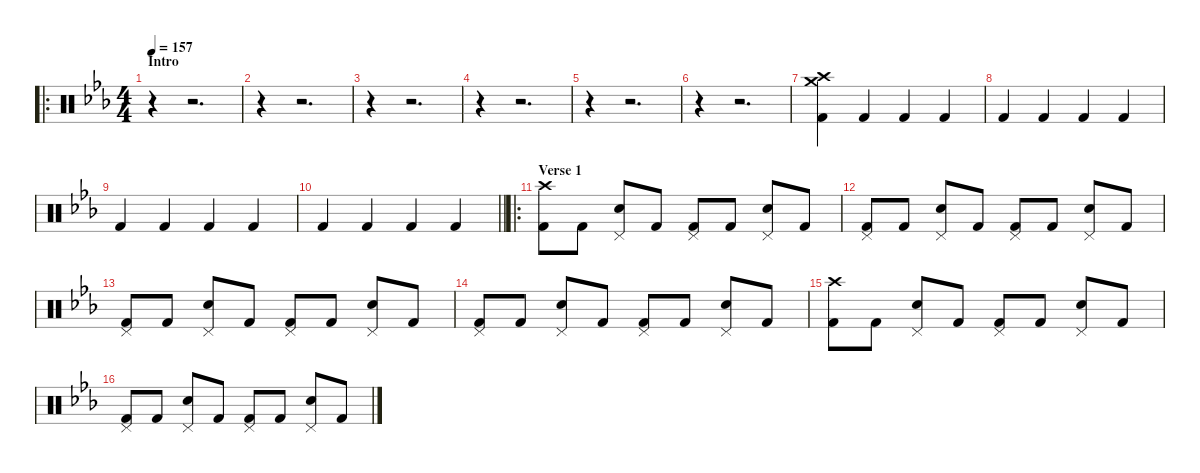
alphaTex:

\defaultSystemsLayout 4
\hideDynamics
\bracketExtendMode nobrackets
\singleTrackTrackNamePolicy hidden
\multiTrackTrackNamePolicy hidden
\firstSystemTrackNameMode fullname
\otherSystemsTrackNameOrientation horizontal
\track ("Drums" "drm.") {instrument percussion}
\staff {score}
\articulation defaults
\ro
\ts (4 4)
\beaming (8 2 2 2 2)
\section ("" "Intro")
\tempo 157
\clef neutral
\ks cminor
r.4{dy f beam Down} r.2{d beam Down} |
r.4{beam Down} r.2{d beam Down} |
r.4{beam Down} r.2{d beam Down} |
r.4{beam Down} r.2{d beam Down} |
r.4{beam Down} r.2{d beam Down} |
r.4{beam Down} r.2{d beam Down} |
("Crash high (hit)"{acc forcenatural} "Crash medium (hit)"{acc forcenatural} "Kick (hit) 2"{acc forcenatural}).4{beam Down} "Kick (hit) 2"{acc forcenatural}.4{beam Up} "Kick (hit) 2"{acc forcenatural}.4{beam Up} "Kick (hit) 2"{acc forcenatural}.4{beam Up} |
"Kick (hit) 2"{acc forcenatural}.4{beam Up} "Kick (hit) 2"{acc forcenatural}.4{beam Up} "Kick (hit) 2"{acc forcenatural}.4{beam Up} "Kick (hit) 2"{acc forcenatural}.4{beam Up} |
"Kick (hit) 2"{acc forcenatural}.4{beam Up} "Kick (hit) 2"{acc forcenatural}.4{beam Up} "Kick (hit) 2"{acc forcenatural}.4{beam Up} "Kick (hit) 2"{acc forcenatural}.4{beam Up} |
\barLineRight lightlight "Kick (hit) 2"{acc forcenatural}.4{beam Up} "Kick (hit) 2"{acc forcenatural}.4{beam Up} "Kick (hit) 2"{acc forcenatural}.4{beam Up} "Kick (hit) 2"{acc forcenatural}.4{beam Up}
|
\ro
\section ("" "Verse 1")
("Crash high (hit)"{acc forcenatural} "Kick (hit) 2"{acc forcenatural}).8{beam Down} "Kick (hit) 2"{acc forcenatural}.8{beam Down} ("Pedal Hi-Hat (hit)"{acc forcenatural} "Snare (hit) 2"{acc forcenatural}).8{beam Up} "Kick (hit) 2"{acc forcenatural}.8{beam Up} ("Pedal Hi-Hat (hit)"{acc forcenatural} "Kick (hit) 2"{acc forcenatural}).8{beam Up} "Kick (hit) 2"{acc forcenatural}.8{beam Up} ("Pedal Hi-Hat (hit)"{acc forcenatural} "Snare (hit) 2"{acc forcenatural}).8{beam Up} "Kick (hit) 2"{acc forcenatural}.8{beam Up} |
("Pedal Hi-Hat (hit)"{acc forcenatural} "Kick (hit) 2"{acc forcenatural}).8{beam Up} "Kick (hit) 2"{acc forcenatural}.8{beam Up} ("Pedal Hi-Hat (hit)"{acc forcenatural} "Snare (hit) 2"{acc forcenatural}).8{beam Up} "Kick (hit) 2"{acc forcenatural}.8{beam Up} ("Pedal Hi-Hat (hit)"{acc forcenatural} "Kick (hit) 2"{acc forcenatural}).8{beam Up} "Kick (hit) 2"{acc forcenatural}.8{beam Up} ("Pedal Hi-Hat (hit)"{acc forcenatural} "Snare (hit) 2"{acc forcenatural}).8{beam Up} "Kick (hit) 2"{acc forcenatural}.8{beam Up} |
("Pedal Hi-Hat (hit)"{acc forcenatural} "Kick (hit) 2"{acc forcenatural}).8{beam Up} "Kick (hit) 2"{acc forcenatural}.8{beam Up} ("Pedal Hi-Hat (hit)"{acc forcenatural} "Snare (hit) 2"{acc forcenatural}).8{beam Up} "Kick (hit) 2"{acc forcenatural}.8{beam Up} ("Pedal Hi-Hat (hit)"{acc forcenatural} "Kick (hit) 2"{acc forcenatural}).8{beam Up} "Kick (hit) 2"{acc forcenatural}.8{beam Up} ("Pedal Hi-Hat (hit)"{acc forcenatural} "Snare (hit) 2"{acc forcenatural}).8{beam Up} "Kick (hit) 2"{acc forcenatural}.8{beam Up} |
("Pedal Hi-Hat (hit)"{acc forcenatural} "Kick (hit) 2"{acc forcenatural}).8{beam Up} "Kick (hit) 2"{acc forcenatural}.8{beam Up} ("Pedal Hi-Hat (hit)"{acc forcenatural} "Snare (hit) 2"{acc forcenatural}).8{beam Up} "Kick (hit) 2"{acc forcenatural}.8{beam Up} ("Pedal Hi-Hat (hit)"{acc forcenatural} "Kick (hit) 2"{acc forcenatural}).8{beam Up} "Kick (hit) 2"{acc forcenatural}.8{beam Up} ("Pedal Hi-Hat (hit)"{acc forcenatural} "Snare (hit) 2"{acc forcenatural}).8{beam Up} "Kick (hit) 2"{acc forcenatural}.8{beam Up} |
("Crash high (hit)"{acc forcenatural} "Kick (hit) 2"{acc forcenatural}).8{beam Down} "Kick (hit) 2"{acc forcenatural}.8{beam Down} ("Pedal Hi-Hat (hit)"{acc forcenatural} "Snare (hit) 2"{acc forcenatural}).8{beam Up} "Kick (hit) 2"{acc forcenatural}.8{beam Up} ("Pedal Hi-Hat (hit)"{acc forcenatural} "Kick (hit) 2"{acc forcenatural}).8{beam Up} "Kick (hit) 2"{acc forcenatural}.8{beam Up} ("Pedal Hi-Hat (hit)"{acc forcenatural} "Snare (hit) 2"{acc forcenatural}).8{beam Up} "Kick (hit) 2"{acc forcenatural}.8{beam Up} |
("Pedal Hi-Hat (hit)"{acc forcenatural} "Kick (hit) 2"{acc forcenatural}).8{beam Up} "Kick (hit) 2"{acc forcenatural}.8{beam Up} ("Pedal Hi-Hat (hit)"{acc forcenatural} "Snare (hit) 2"{acc forcenatural}).8{beam Up} "Kick (hit) 2"{acc forcenatural}.8{beam Up} ("Pedal Hi-Hat (hit)"{acc forcenatural} "Kick (hit) 2"{acc forcenatural}).8{beam Up} "Kick (hit) 2"{acc forcenatural}.8{beam Up} ("Pedal Hi-Hat (hit)"{acc forcenatural} "Snare (hit) 2"{acc forcenatural}).8{beam Up} "Kick (hit) 2"{acc forcenatural}.8{beam Up}
